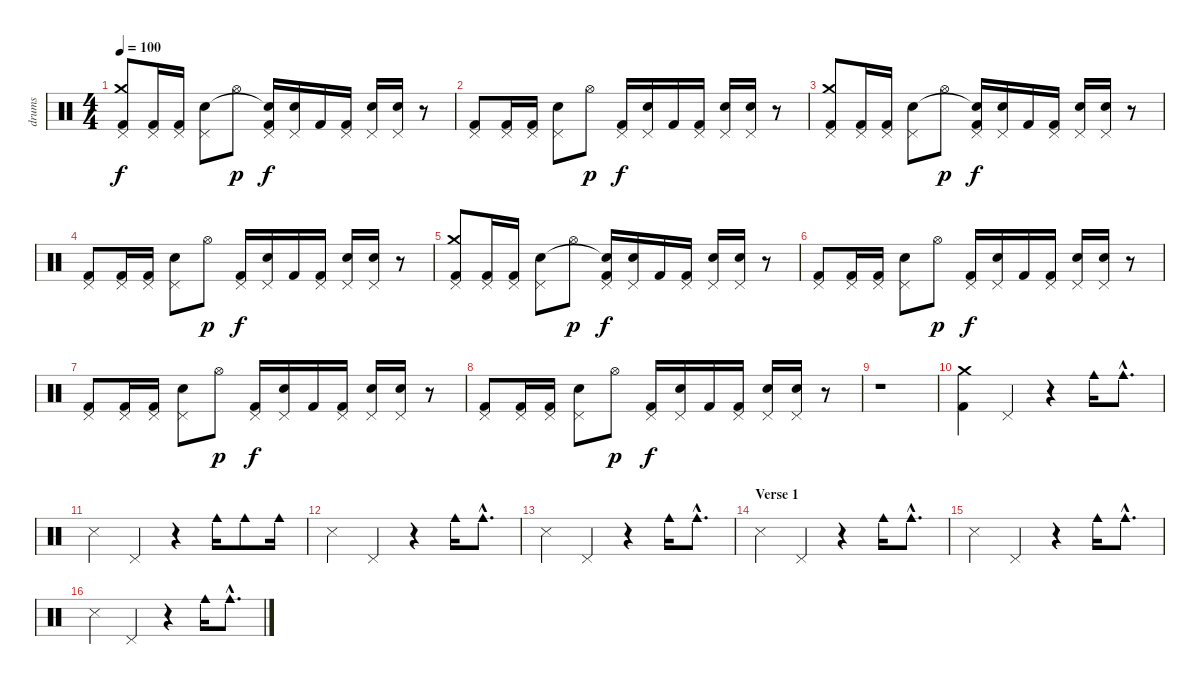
\track ("drums" "drums") {instrument percussion}
\staff {score}
\articulation defaults
\ts (4 4)
\tempo 100
\clef neutral
\ks c
("Pedal Hi-Hat (hit)" "Crash medium (hit)" "Kick (hit) 2").8{dy f} ("Pedal Hi-Hat (hit)" "Kick (hit) 2").16 ("Pedal Hi-Hat (hit)" "Kick (hit) 2").16 ("Pedal Hi-Hat (hit)" "Electric Snare (hit)").8 "Hi-Hat (open)".8{dy p} ("Pedal Hi-Hat (hit)" "Snare (hit)"{t} "Kick (hit) 2").16{dy f} ("Pedal Hi-Hat (hit)" "Electric Snare (hit)").16 "Kick (hit) 2".16 ("Pedal Hi-Hat (hit)" "Kick (hit) 2").16 ("Pedal Hi-Hat (hit)" "Electric Snare (hit)").16 ("Pedal Hi-Hat (hit)" "Electric Snare (hit)").16 r.8 |
("Pedal Hi-Hat (hit)" "Kick (hit) 2").8 ("Pedal Hi-Hat (hit)" "Kick (hit) 2").16 ("Pedal Hi-Hat (hit)" "Kick (hit) 2").16 ("Pedal Hi-Hat (hit)" "Electric Snare (hit)").8 "Hi-Hat (open)".8{dy p} ("Pedal Hi-Hat (hit)" "Kick (hit) 2").16{dy f} ("Pedal Hi-Hat (hit)" "Electric Snare (hit)").16 "Kick (hit) 2".16 ("Pedal Hi-Hat (hit)" "Kick (hit) 2").16 ("Pedal Hi-Hat (hit)" "Electric Snare (hit)").16 ("Pedal Hi-Hat (hit)" "Electric Snare (hit)").16 r.8 |
("Pedal Hi-Hat (hit)" "Crash medium (hit)" "Kick (hit) 2").8 ("Pedal Hi-Hat (hit)" "Kick (hit) 2").16 ("Pedal Hi-Hat (hit)" "Kick (hit) 2").16 ("Pedal Hi-Hat (hit)" "Electric Snare (hit)").8 "Hi-Hat (open)".8{dy p} ("Pedal Hi-Hat (hit)" "Snare (hit)"{t} "Kick (hit) 2").16{dy f} ("Pedal Hi-Hat (hit)" "Electric Snare (hit)").16 "Kick (hit) 2".16 ("Pedal Hi-Hat (hit)" "Kick (hit) 2").16 ("Pedal Hi-Hat (hit)" "Electric Snare (hit)").16 ("Pedal Hi-Hat (hit)" "Electric Snare (hit)").16 r.8 |
("Pedal Hi-Hat (hit)" "Kick (hit) 2").8 ("Pedal Hi-Hat (hit)" "Kick (hit) 2").16 ("Pedal Hi-Hat (hit)" "Kick (hit) 2").16 ("Pedal Hi-Hat (hit)" "Electric Snare (hit)").8 "Hi-Hat (open)".8{dy p} ("Pedal Hi-Hat (hit)" "Kick (hit) 2").16{dy f} ("Pedal Hi-Hat (hit)" "Electric Snare (hit)").16 "Kick (hit) 2".16 ("Pedal Hi-Hat (hit)" "Kick (hit) 2").16 ("Pedal Hi-Hat (hit)" "Electric Snare (hit)").16 ("Pedal Hi-Hat (hit)" "Electric Snare (hit)").16 r.8 |
("Pedal Hi-Hat (hit)" "Crash medium (hit)" "Kick (hit) 2").8 ("Pedal Hi-Hat (hit)" "Kick (hit) 2").16 ("Pedal Hi-Hat (hit)" "Kick (hit) 2").16 ("Pedal Hi-Hat (hit)" "Electric Snare (hit)").8 "Hi-Hat (open)".8{dy p} ("Pedal Hi-Hat (hit)" "Snare (hit)"{t} "Kick (hit) 2").16{dy f} ("Pedal Hi-Hat (hit)" "Electric Snare (hit)").16 "Kick (hit) 2".16 ("Pedal Hi-Hat (hit)" "Kick (hit) 2").16 ("Pedal Hi-Hat (hit)" "Electric Snare (hit)").16 ("Pedal Hi-Hat (hit)" "Electric Snare (hit)").16 r.8 |
("Pedal Hi-Hat (hit)" "Kick (hit) 2").8 ("Pedal Hi-Hat (hit)" "Kick (hit) 2").16 ("Pedal Hi-Hat (hit)" "Kick (hit) 2").16 ("Pedal Hi-Hat (hit)" "Electric Snare (hit)").8 "Hi-Hat (open)".8{dy p} ("Pedal Hi-Hat (hit)" "Kick (hit) 2").16{dy f} ("Pedal Hi-Hat (hit)" "Electric Snare (hit)").16 "Kick (hit) 2".16 ("Pedal Hi-Hat (hit)" "Kick (hit) 2").16 ("Pedal Hi-Hat (hit)" "Electric Snare (hit)").16 ("Pedal Hi-Hat (hit)" "Electric Snare (hit)").16 r.8 |
("Pedal Hi-Hat (hit)" "Kick (hit) 2").8 ("Pedal Hi-Hat (hit)" "Kick (hit) 2").16 ("Pedal Hi-Hat (hit)" "Kick (hit) 2").16 ("Pedal Hi-Hat (hit)" "Electric Snare (hit)").8 "Hi-Hat (open)".8{dy p} ("Pedal Hi-Hat (hit)" "Kick (hit) 2").16{dy f} ("Pedal Hi-Hat (hit)" "Electric Snare (hit)").16 "Kick (hit) 2".16 ("Pedal Hi-Hat (hit)" "Kick (hit) 2").16 ("Pedal Hi-Hat (hit)" "Electric Snare (hit)").16 ("Pedal Hi-Hat (hit)" "Electric Snare (hit)").16 r.8 |
("Pedal Hi-Hat (hit)" "Kick (hit) 2").8 ("Pedal Hi-Hat (hit)" "Kick (hit) 2").16 ("Pedal Hi-Hat (hit)" "Kick (hit) 2").16 ("Pedal Hi-Hat (hit)" "Electric Snare (hit)").8 "Hi-Hat (open)".8{dy p} ("Pedal Hi-Hat (hit)" "Kick (hit) 2").16{dy f} ("Pedal Hi-Hat (hit)" "Electric Snare (hit)").16 "Kick (hit) 2".16 ("Pedal Hi-Hat (hit)" "Kick (hit) 2").16 ("Pedal Hi-Hat (hit)" "Electric Snare (hit)").16 ("Pedal Hi-Hat (hit)" "Electric Snare (hit)").16 r.8 |
r.1 |
("Crash medium (hit)" "Kick (hit) 2").4 "Pedal Hi-Hat (hit)".4 r.4 "Cowbell medium (hit)".16 "Cowbell medium (hit)"{hac}.8{d} |
"Snare (side stick) 3".4 "Pedal Hi-Hat (hit)".4 r.4 "Cowbell medium (hit)".16 "Cowbell medium (hit)".8 "Cowbell medium (hit)".16 |
"Snare (side stick) 3".4 "Pedal Hi-Hat (hit)".4 r.4 "Cowbell medium (hit)".16 "Cowbell medium (hit)"{hac}.8{d} |
"Snare (side stick) 3".4 "Pedal Hi-Hat (hit)".4 r.4 "Cowbell medium (hit)".16 "Cowbell medium (hit)"{hac}.8{d} |
\section ("" "Verse 1")
"Snare (side stick) 3".4 "Pedal Hi-Hat (hit)".4 r.4 "Cowbell medium (hit)".16 "Cowbell medium (hit)"{hac}.8{d} |
"Snare (side stick) 3".4 "Pedal Hi-Hat (hit)".4 r.4 "Cowbell medium (hit)".16 "Cowbell medium (hit)"{hac}.8{d} |
"Snare (side stick) 3".4 "Pedal Hi-Hat (hit)".4 r.4 "Cowbell medium (hit)".16 "Cowbell medium (hit)"{hac}.8{d}
